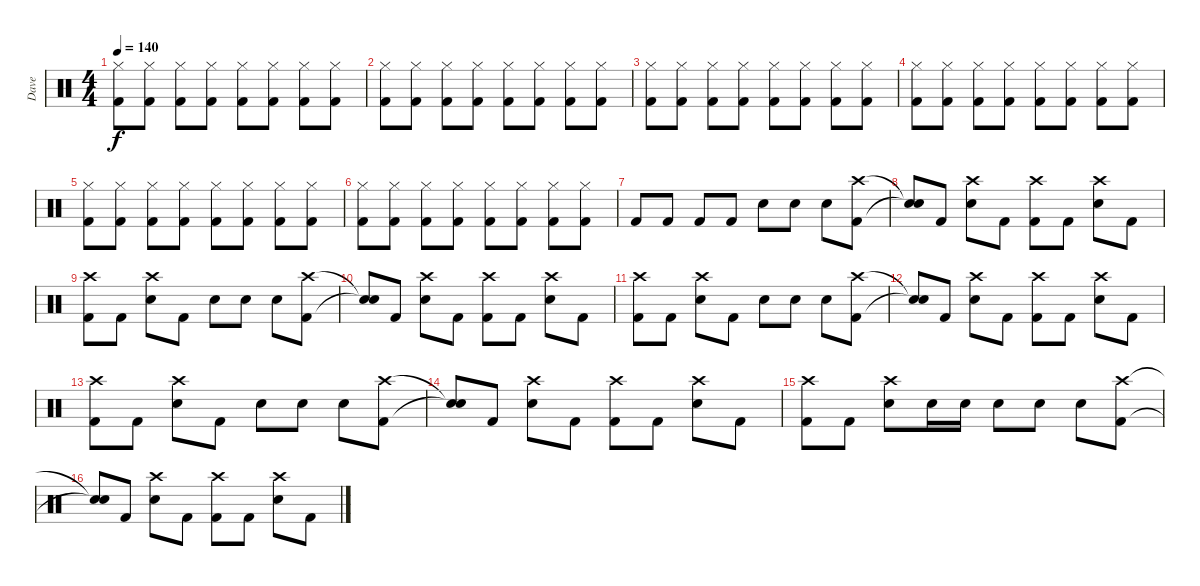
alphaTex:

\track ("Dave" "Dave") {instrument percussion}
\staff {score}
\articulation defaults
\ts (4 4)
\tempo 140
\clef neutral
\ks c
("Hi-Hat (closed)" "Kick (hit) 2").8{dy f} ("Hi-Hat (closed)" "Kick (hit) 2").8 ("Hi-Hat (closed)" "Kick (hit) 2").8 ("Hi-Hat (closed)" "Kick (hit) 2").8 ("Hi-Hat (closed)" "Kick (hit) 2").8 ("Hi-Hat (closed)" "Kick (hit) 2").8 ("Hi-Hat (closed)" "Kick (hit) 2").8 ("Hi-Hat (closed)" "Kick (hit) 2").8 |
("Hi-Hat (closed)" "Kick (hit) 2").8 ("Hi-Hat (closed)" "Kick (hit) 2").8 ("Hi-Hat (closed)" "Kick (hit) 2").8 ("Hi-Hat (closed)" "Kick (hit) 2").8 ("Hi-Hat (closed)" "Kick (hit) 2").8 ("Hi-Hat (closed)" "Kick (hit) 2").8 ("Hi-Hat (closed)" "Kick (hit) 2").8 ("Hi-Hat (closed)" "Kick (hit) 2").8 |
("Hi-Hat (closed)" "Kick (hit) 2").8 ("Hi-Hat (closed)" "Kick (hit) 2").8 ("Hi-Hat (closed)" "Kick (hit) 2").8 ("Hi-Hat (closed)" "Kick (hit) 2").8 ("Hi-Hat (closed)" "Kick (hit) 2").8 ("Hi-Hat (closed)" "Kick (hit) 2").8 ("Hi-Hat (closed)" "Kick (hit) 2").8 ("Hi-Hat (closed)" "Kick (hit) 2").8 |
("Hi-Hat (closed)" "Kick (hit) 2").8 ("Hi-Hat (closed)" "Kick (hit) 2").8 ("Hi-Hat (closed)" "Kick (hit) 2").8 ("Hi-Hat (closed)" "Kick (hit) 2").8 ("Hi-Hat (closed)" "Kick (hit) 2").8 ("Hi-Hat (closed)" "Kick (hit) 2").8 ("Hi-Hat (closed)" "Kick (hit) 2").8 ("Hi-Hat (closed)" "Kick (hit) 2").8 |
("Hi-Hat (closed)" "Kick (hit) 2").8 ("Hi-Hat (closed)" "Kick (hit) 2").8 ("Hi-Hat (closed)" "Kick (hit) 2").8 ("Hi-Hat (closed)" "Kick (hit) 2").8 ("Hi-Hat (closed)" "Kick (hit) 2").8 ("Hi-Hat (closed)" "Kick (hit) 2").8 ("Hi-Hat (closed)" "Kick (hit) 2").8 ("Hi-Hat (closed)" "Kick (hit) 2").8 |
("Hi-Hat (closed)" "Kick (hit) 2").8 ("Hi-Hat (closed)" "Kick (hit) 2").8 ("Hi-Hat (closed)" "Kick (hit) 2").8 ("Hi-Hat (closed)" "Kick (hit) 2").8 ("Hi-Hat (closed)" "Kick (hit) 2").8 ("Hi-Hat (closed)" "Kick (hit) 2").8 ("Hi-Hat (closed)" "Kick (hit) 2").8 ("Hi-Hat (closed)" "Kick (hit) 2").8 |
"Kick (hit) 2".8 "Kick (hit) 2".8 "Kick (hit) 2".8 "Kick (hit) 2".8 "Snare (hit) 2".8 "Snare (hit) 2".8 "Snare (hit) 2".8 ("Crash high (hit)" "Kick (hit) 2").8 |
("Snare (hit)"{t} "Snare (hit)"{t}).8 "Kick (hit) 2".8 ("Crash high (hit)" "Snare (hit) 2").8 "Kick (hit) 2".8 ("Crash high (hit)" "Kick (hit) 2").8 "Kick (hit) 2".8 ("Crash high (hit)" "Snare (hit) 2").8 "Kick (hit) 2".8 |
("Crash high (hit)" "Kick (hit) 2").8 "Kick (hit) 2".8 ("Crash high (hit)" "Snare (hit) 2").8 "Kick (hit) 2".8 "Snare (hit) 2".8 "Snare (hit) 2".8 "Snare (hit) 2".8 ("Crash high (hit)" "Kick (hit) 2").8 |
("Snare (hit)"{t} "Snare (hit)"{t}).8 "Kick (hit) 2".8 ("Crash high (hit)" "Snare (hit) 2").8 "Kick (hit) 2".8 ("Crash high (hit)" "Kick (hit) 2").8 "Kick (hit) 2".8 ("Crash high (hit)" "Snare (hit) 2").8 "Kick (hit) 2".8 |
("Crash high (hit)" "Kick (hit) 2").8 "Kick (hit) 2".8 ("Crash high (hit)" "Snare (hit) 2").8 "Kick (hit) 2".8 "Snare (hit) 2".8 "Snare (hit) 2".8 "Snare (hit) 2".8 ("Crash high (hit)" "Kick (hit) 2").8 |
("Snare (hit)"{t} "Snare (hit)"{t}).8 "Kick (hit) 2".8 ("Crash high (hit)" "Snare (hit) 2").8 "Kick (hit) 2".8 ("Crash high (hit)" "Kick (hit) 2").8 "Kick (hit) 2".8 ("Crash high (hit)" "Snare (hit) 2").8 "Kick (hit) 2".8 |
("Crash high (hit)" "Kick (hit) 2").8 "Kick (hit) 2".8 ("Crash high (hit)" "Snare (hit) 2").8 "Kick (hit) 2".8 "Snare (hit) 2".8 "Snare (hit) 2".8 "Snare (hit) 2".8 ("Crash high (hit)" "Kick (hit) 2").8 |
("Snare (hit)"{t} "Snare (hit)"{t}).8 "Kick (hit) 2".8 ("Crash high (hit)" "Snare (hit) 2").8 "Kick (hit) 2".8 ("Crash high (hit)" "Kick (hit) 2").8 "Kick (hit) 2".8 ("Crash high (hit)" "Snare (hit) 2").8 "Kick (hit) 2".8 |
("Crash high (hit)" "Kick (hit) 2").8 "Kick (hit) 2".8 ("Crash high (hit)" "Snare (hit) 2").8 "Snare (hit) 2".16 "Snare (hit) 2".16 "Snare (hit) 2".8 "Snare (hit) 2".8 "Snare (hit) 2".8 ("Crash high (hit)" "Kick (hit) 2").8 |
("Snare (hit)"{t} "Snare (hit)"{t}).8 "Kick (hit) 2".8 ("Crash high (hit)" "Snare (hit) 2").8 "Kick (hit) 2".8 ("Crash high (hit)" "Kick (hit) 2").8 "Kick (hit) 2".8 ("Crash high (hit)" "Snare (hit) 2").8 "Kick (hit) 2".8
